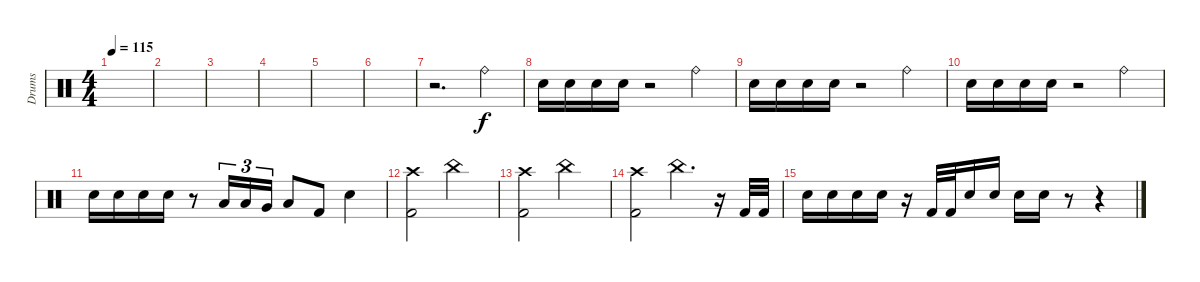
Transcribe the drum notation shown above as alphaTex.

\track ("Drums" "Drums") {instrument percussion}
\staff {score}
\articulation defaults
\ts (4 4)
\tempo 115
\clef neutral
\ks c
|
|
|
|
|
|
r.2{d} "Ride (bell)".4 |
"Snare (hit) 2".16 "Snare (hit) 2".16 "Snare (hit) 2".16 "Snare (hit) 2".16 r.2 "Ride (bell)".4 |
"Snare (hit) 2".16 "Snare (hit) 2".16 "Snare (hit) 2".16 "Snare (hit) 2".16 r.2 "Ride (bell)".4 |
"Snare (hit) 2".16 "Snare (hit) 2".16 "Snare (hit) 2".16 "Snare (hit) 2".16 r.2 "Ride (bell)".4 |
"Snare (hit) 2".16 "Snare (hit) 2".16 "Snare (hit) 2".16 "Snare (hit) 2".16 r.8 "Low Tom (hit)".16{tu (3 2)} "Low Tom (hit)".16{tu (3 2)} "Very Low Tom (hit)".16{tu (3 2)} "Low Floor Tom (hit)".8 "Kick (hit) 2".8 "Snare (hit) 2".4 |
("Crash high (hit)" "Kick (hit) 2").2 "China (hit)".2 |
("Crash high (hit)" "Kick (hit) 2").2 "China (hit)".2 |
("Crash high (hit)" "Kick (hit) 2").2 "China (hit)".4{d} r.16 "Kick (hit) 2".32 "Kick (hit) 2".32 |
"Snare (hit) 2".16 "Snare (hit) 2".16 "Snare (hit) 2".16 "Snare (hit) 2".16 r.16 "Kick (hit) 2".32 "Kick (hit) 2".32 "Snare (hit) 2".16 "Snare (hit) 2".16 "Snare (hit) 2".16 "Snare (hit) 2".16 r.8 r.4
